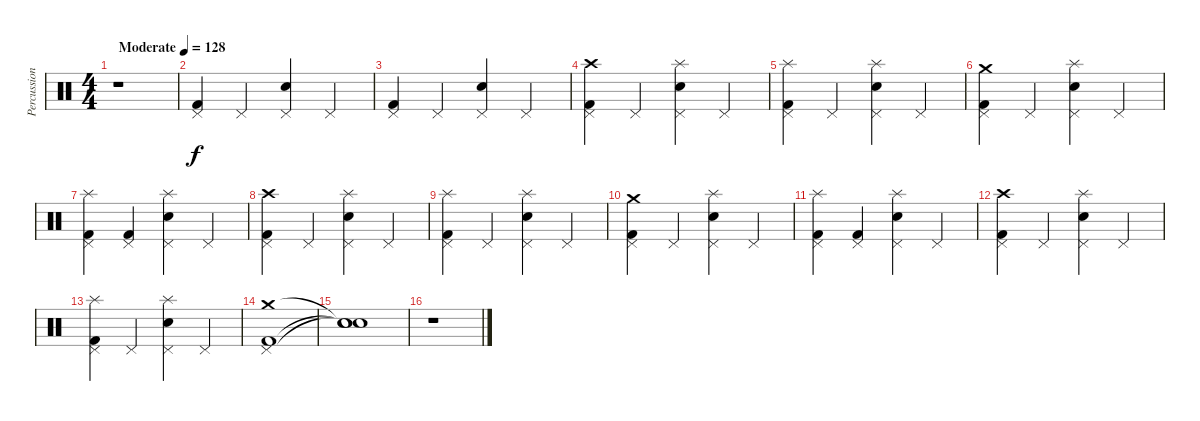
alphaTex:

\track ("Percussion" "Percussion") {instrument percussion}
\staff {score}
\articulation defaults
\ts (4 4)
\tempo (128 "Moderate")
\clef neutral
\ks c
r.1{dy f} |
("Kick (hit) 2" "Pedal Hi-Hat (hit)").4 "Pedal Hi-Hat (hit)".4 ("Electric Snare (hit)" "Pedal Hi-Hat (hit)").4 "Pedal Hi-Hat (hit)".4 |
("Kick (hit) 2" "Pedal Hi-Hat (hit)").4 "Pedal Hi-Hat (hit)".4 ("Electric Snare (hit)" "Pedal Hi-Hat (hit)").4 "Pedal Hi-Hat (hit)".4 |
("Crash high (hit)" "Kick (hit) 2" "Pedal Hi-Hat (hit)").4 "Pedal Hi-Hat (hit)".4 ("Splash (hit)" "Electric Snare (hit)" "Pedal Hi-Hat (hit)").4 "Pedal Hi-Hat (hit)".4 |
("Splash (hit)" "Kick (hit) 2" "Pedal Hi-Hat (hit)").4 "Pedal Hi-Hat (hit)".4 ("Splash (hit)" "Electric Snare (hit)" "Pedal Hi-Hat (hit)").4 "Pedal Hi-Hat (hit)".4 |
("Crash medium (hit)" "Kick (hit) 2" "Pedal Hi-Hat (hit)").4 "Pedal Hi-Hat (hit)".4 ("Splash (hit)" "Electric Snare (hit)" "Pedal Hi-Hat (hit)").4 "Pedal Hi-Hat (hit)".4 |
("Splash (hit)" "Kick (hit) 2" "Pedal Hi-Hat (hit)").4 ("Kick (hit) 2" "Pedal Hi-Hat (hit)").4 ("Splash (hit)" "Electric Snare (hit)" "Pedal Hi-Hat (hit)").4 "Pedal Hi-Hat (hit)".4 |
("Crash high (hit)" "Kick (hit) 2" "Pedal Hi-Hat (hit)").4 "Pedal Hi-Hat (hit)".4 ("Splash (hit)" "Electric Snare (hit)" "Pedal Hi-Hat (hit)").4 "Pedal Hi-Hat (hit)".4 |
("Splash (hit)" "Kick (hit) 2" "Pedal Hi-Hat (hit)").4 "Pedal Hi-Hat (hit)".4 ("Splash (hit)" "Electric Snare (hit)" "Pedal Hi-Hat (hit)").4 "Pedal Hi-Hat (hit)".4 |
("Crash medium (hit)" "Kick (hit) 2" "Pedal Hi-Hat (hit)").4 "Pedal Hi-Hat (hit)".4 ("Splash (hit)" "Electric Snare (hit)" "Pedal Hi-Hat (hit)").4 "Pedal Hi-Hat (hit)".4 |
("Splash (hit)" "Kick (hit) 2" "Pedal Hi-Hat (hit)").4 ("Kick (hit) 2" "Pedal Hi-Hat (hit)").4 ("Splash (hit)" "Electric Snare (hit)" "Pedal Hi-Hat (hit)").4 "Pedal Hi-Hat (hit)".4 |
("Crash high (hit)" "Kick (hit) 2" "Pedal Hi-Hat (hit)").4 "Pedal Hi-Hat (hit)".4 ("Splash (hit)" "Electric Snare (hit)" "Pedal Hi-Hat (hit)").4 "Pedal Hi-Hat (hit)".4 |
("Splash (hit)" "Kick (hit) 2" "Pedal Hi-Hat (hit)").4 "Pedal Hi-Hat (hit)".4 ("Splash (hit)" "Electric Snare (hit)" "Pedal Hi-Hat (hit)").4 "Pedal Hi-Hat (hit)".4 |
("Crash medium (hit)" "Kick (hit) 2" "Pedal Hi-Hat (hit)").1 |
("Snare (hit)"{t} "Snare (hit)"{t} "Snare (hit)"{t}).1 |
r.1
